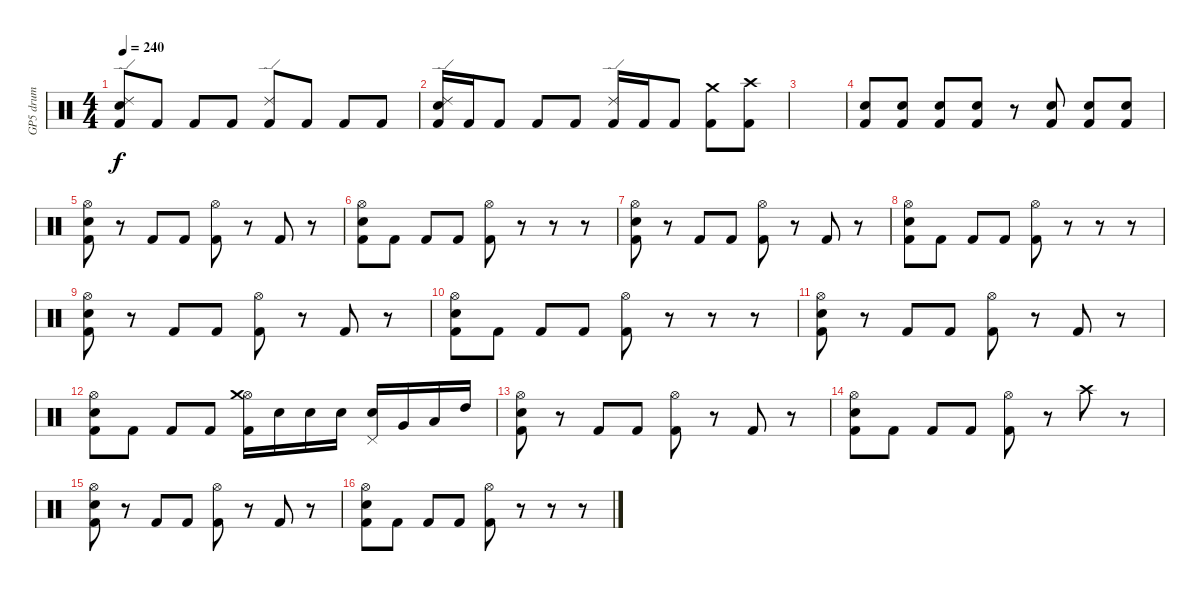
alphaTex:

\track ("GP5 drum" "GP5 drum") {instrument percussion}
\staff {score}
\articulation defaults
\ts (4 4)
\tempo 240
\clef neutral
\ks c
("Ride (edge) 2" "Electric Snare (hit)" "Kick (hit) 2").8{dy f} "Kick (hit) 2".8 "Kick (hit) 2".8 "Kick (hit) 2".8 ("Ride (edge) 2" "Kick (hit) 2").8 "Kick (hit) 2".8 "Kick (hit) 2".8 "Kick (hit) 2".8 |
("Ride (edge) 2" "Electric Snare (hit)" "Kick (hit) 2").16 "Kick (hit) 2".16 "Kick (hit) 2".8 "Kick (hit) 2".8 "Kick (hit) 2".8 ("Ride (edge) 2" "Kick (hit) 2").16 "Kick (hit) 2".16 "Kick (hit) 2".8 ("Crash medium (hit)" "Kick (hit) 2").8 ("Crash high (hit)" "Kick (hit) 2").8 |
|
("Electric Snare (hit)" "Kick (hit) 2").8 ("Electric Snare (hit)" "Kick (hit) 2").8 ("Electric Snare (hit)" "Kick (hit) 2").8 ("Electric Snare (hit)" "Kick (hit) 2").8 r.8 ("Electric Snare (hit)" "Kick (hit) 2").8 ("Electric Snare (hit)" "Kick (hit) 2").8 ("Electric Snare (hit)" "Kick (hit) 2").8 |
("Hi-Hat (open)" "Electric Snare (hit)" "Kick (hit) 2").8 r.8 "Kick (hit) 2".8 "Kick (hit) 2".8 ("Hi-Hat (open)" "Kick (hit) 2").8 r.8 "Kick (hit) 2".8 r.8 |
("Hi-Hat (open)" "Electric Snare (hit)" "Kick (hit) 2").8 "Kick (hit) 2".8 "Kick (hit) 2".8 "Kick (hit) 2".8 ("Hi-Hat (open)" "Kick (hit) 2").8 r.8 r.8 r.8 |
("Hi-Hat (open)" "Electric Snare (hit)" "Kick (hit) 2").8 r.8 "Kick (hit) 2".8 "Kick (hit) 2".8 ("Hi-Hat (open)" "Kick (hit) 2").8 r.8 "Kick (hit) 2".8 r.8 |
("Hi-Hat (open)" "Electric Snare (hit)" "Kick (hit) 2").8 "Kick (hit) 2".8 "Kick (hit) 2".8 "Kick (hit) 2".8 ("Hi-Hat (open)" "Kick (hit) 2").8 r.8 r.8 r.8 |
("Hi-Hat (open)" "Electric Snare (hit)" "Kick (hit) 2").8 r.8 "Kick (hit) 2".8 "Kick (hit) 2".8 ("Hi-Hat (open)" "Kick (hit) 2").8 r.8 "Kick (hit) 2".8 r.8 |
("Hi-Hat (open)" "Electric Snare (hit)" "Kick (hit) 2").8 "Kick (hit) 2".8 "Kick (hit) 2".8 "Kick (hit) 2".8 ("Hi-Hat (open)" "Kick (hit) 2").8 r.8 r.8 r.8 |
("Hi-Hat (open)" "Electric Snare (hit)" "Kick (hit) 2").8 r.8 "Kick (hit) 2".8 "Kick (hit) 2".8 ("Hi-Hat (open)" "Kick (hit) 2").8 r.8 "Kick (hit) 2".8 r.8 |
("Hi-Hat (open)" "Electric Snare (hit)" "Kick (hit) 2").8 "Kick (hit) 2".8 "Kick (hit) 2".8 "Kick (hit) 2".8 ("Hi-Hat (open)" "Crash medium (hit)" "Kick (hit) 2").16 "Electric Snare (hit)".16 "Electric Snare (hit)".16 "Electric Snare (hit)".16 ("Electric Snare (hit)" "Pedal Hi-Hat (hit)").16 "Very Low Tom (hit)".16 "Low Tom (hit)".16 "High Tom (hit)".16 |
("Hi-Hat (open)" "Electric Snare (hit)" "Kick (hit) 2").8 r.8 "Kick (hit) 2".8 "Kick (hit) 2".8 ("Hi-Hat (open)" "Kick (hit) 2").8 r.8 "Kick (hit) 2".8 r.8 |
("Hi-Hat (open)" "Electric Snare (hit)" "Kick (hit) 2").8 "Kick (hit) 2".8 "Kick (hit) 2".8 "Kick (hit) 2".8 ("Hi-Hat (open)" "Kick (hit) 2").8 r.8 "Crash high (hit)".8 r.8 |
("Hi-Hat (open)" "Electric Snare (hit)" "Kick (hit) 2").8 r.8 "Kick (hit) 2".8 "Kick (hit) 2".8 ("Hi-Hat (open)" "Kick (hit) 2").8 r.8 "Kick (hit) 2".8 r.8 |
("Hi-Hat (open)" "Electric Snare (hit)" "Kick (hit) 2").8 "Kick (hit) 2".8 "Kick (hit) 2".8 "Kick (hit) 2".8 ("Hi-Hat (open)" "Kick (hit) 2").8 r.8 r.8 r.8
